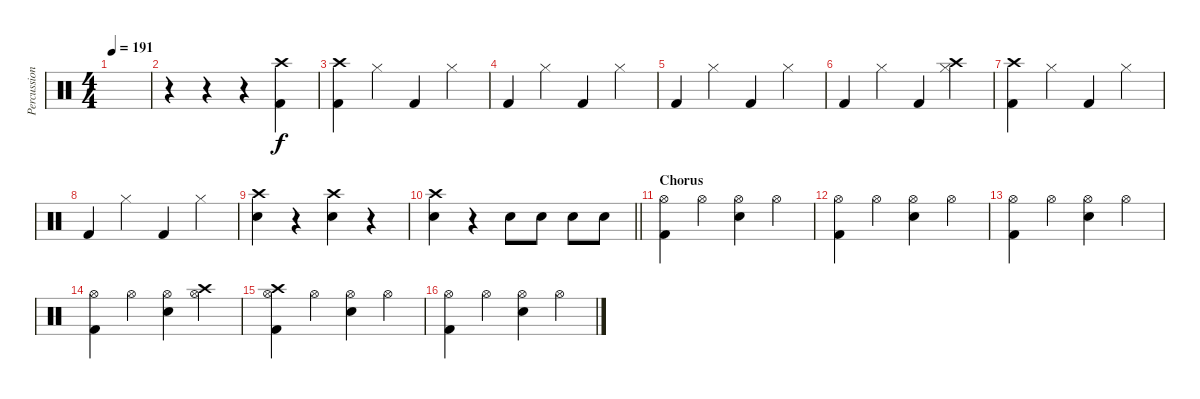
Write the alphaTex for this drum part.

\track ("Percussion" "Percussion") {instrument percussion}
\staff {score}
\articulation defaults
\ts (4 4)
\tempo 191
\clef neutral
\ks c
|
r.4 r.4 r.4 ("Crash high (hit)" "Kick (hit) 2").4 |
("Crash high (hit)" "Kick (hit) 2").4 "Hi-Hat (closed)".4 "Kick (hit) 2".4 "Hi-Hat (closed)".4 |
"Kick (hit) 2".4 "Hi-Hat (closed)".4 "Kick (hit) 2".4 "Hi-Hat (closed)".4 |
"Kick (hit) 2".4 "Hi-Hat (closed)".4 "Kick (hit) 2".4 "Hi-Hat (closed)".4 |
"Kick (hit) 2".4 "Hi-Hat (closed)".4 "Kick (hit) 2".4 ("Crash high (hit)" "Hi-Hat (closed)").4 |
("Crash high (hit)" "Kick (hit) 2").4 "Hi-Hat (closed)".4 "Kick (hit) 2".4 "Hi-Hat (closed)".4 |
"Kick (hit) 2".4 "Hi-Hat (closed)".4 "Kick (hit) 2".4 "Hi-Hat (closed)".4 |
("Crash high (hit)" "Snare (hit) 2").4 r.4 ("Crash high (hit)" "Snare (hit) 2").4 r.4 |
\barLineRight lightlight
("Crash high (hit)" "Snare (hit) 2").4 r.4 "Snare (hit) 2".8 "Snare (hit) 2".8 "Snare (hit) 2".8 "Snare (hit) 2".8 |
\section ("" "Chorus")
("Hi-Hat (open)" "Kick (hit) 2").4 "Hi-Hat (open)".4 ("Hi-Hat (open)" "Snare (hit) 2").4 "Hi-Hat (open)".4 |
("Hi-Hat (open)" "Kick (hit) 2").4 "Hi-Hat (open)".4 ("Hi-Hat (open)" "Snare (hit) 2").4 "Hi-Hat (open)".4 |
("Hi-Hat (open)" "Kick (hit) 2").4 "Hi-Hat (open)".4 ("Hi-Hat (open)" "Snare (hit) 2").4 "Hi-Hat (open)".4 |
("Hi-Hat (open)" "Kick (hit) 2").4 "Hi-Hat (open)".4 ("Hi-Hat (open)" "Snare (hit) 2").4 ("Hi-Hat (open)" "Crash high (hit)").4 |
("Hi-Hat (open)" "Crash high (hit)" "Kick (hit) 2").4 "Hi-Hat (open)".4 ("Hi-Hat (open)" "Snare (hit) 2").4 "Hi-Hat (open)".4 |
("Hi-Hat (open)" "Kick (hit) 2").4 "Hi-Hat (open)".4 ("Hi-Hat (open)" "Snare (hit) 2").4 "Hi-Hat (open)".4
